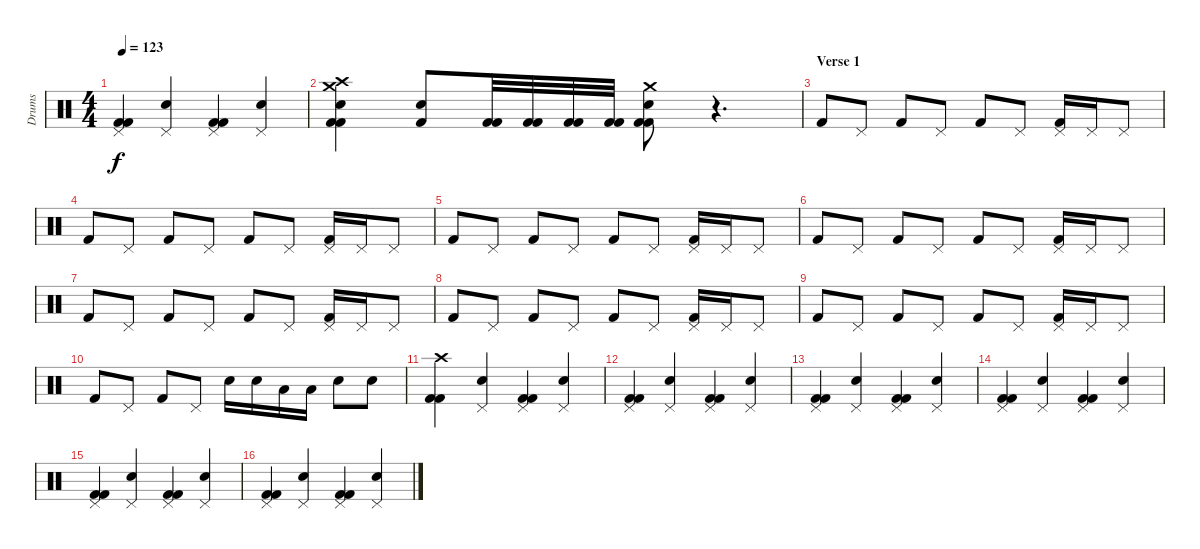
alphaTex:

\track ("Drums" "Drums") {instrument percussion}
\staff {score}
\articulation defaults
\ts (4 4)
\tempo 123
\clef neutral
\ks c
("Pedal Hi-Hat (hit)" "Kick (hit) 2" "Kick (hit) 2").4{dy f} ("Pedal Hi-Hat (hit)" "Snare (hit) 2").4 ("Pedal Hi-Hat (hit)" "Kick (hit) 2" "Kick (hit) 2").4 ("Pedal Hi-Hat (hit)" "Snare (hit) 2").4 |
("Crash medium (hit)" "Crash high (hit)" "Snare (hit) 2" "Kick (hit) 2" "Kick (hit) 2").4 ("Snare (hit) 2" "Kick (hit) 2").8 ("Kick (hit) 2" "Kick (hit) 2").32 ("Kick (hit) 2" "Kick (hit) 2").32 ("Kick (hit) 2" "Kick (hit) 2").32 ("Kick (hit) 2" "Kick (hit) 2").32 ("Crash medium (hit)" "Snare (hit) 2" "Kick (hit) 2" "Kick (hit) 2").8 r.4{d} |
\section ("" "Verse 1")
"Kick (hit) 2".8 "Pedal Hi-Hat (hit)".8 "Kick (hit) 2".8 "Pedal Hi-Hat (hit)".8 "Kick (hit) 2".8 "Pedal Hi-Hat (hit)".8 ("Pedal Hi-Hat (hit)" "Kick (hit) 2").16 "Pedal Hi-Hat (hit)".16 "Pedal Hi-Hat (hit)".8 |
"Kick (hit) 2".8 "Pedal Hi-Hat (hit)".8 "Kick (hit) 2".8 "Pedal Hi-Hat (hit)".8 "Kick (hit) 2".8 "Pedal Hi-Hat (hit)".8 ("Pedal Hi-Hat (hit)" "Kick (hit) 2").16 "Pedal Hi-Hat (hit)".16 "Pedal Hi-Hat (hit)".8 |
"Kick (hit) 2".8 "Pedal Hi-Hat (hit)".8 "Kick (hit) 2".8 "Pedal Hi-Hat (hit)".8 "Kick (hit) 2".8 "Pedal Hi-Hat (hit)".8 ("Pedal Hi-Hat (hit)" "Kick (hit) 2").16 "Pedal Hi-Hat (hit)".16 "Pedal Hi-Hat (hit)".8 |
"Kick (hit) 2".8 "Pedal Hi-Hat (hit)".8 "Kick (hit) 2".8 "Pedal Hi-Hat (hit)".8 "Kick (hit) 2".8 "Pedal Hi-Hat (hit)".8 ("Pedal Hi-Hat (hit)" "Kick (hit) 2").16 "Pedal Hi-Hat (hit)".16 "Pedal Hi-Hat (hit)".8 |
"Kick (hit) 2".8 "Pedal Hi-Hat (hit)".8 "Kick (hit) 2".8 "Pedal Hi-Hat (hit)".8 "Kick (hit) 2".8 "Pedal Hi-Hat (hit)".8 ("Pedal Hi-Hat (hit)" "Kick (hit) 2").16 "Pedal Hi-Hat (hit)".16 "Pedal Hi-Hat (hit)".8 |
"Kick (hit) 2".8 "Pedal Hi-Hat (hit)".8 "Kick (hit) 2".8 "Pedal Hi-Hat (hit)".8 "Kick (hit) 2".8 "Pedal Hi-Hat (hit)".8 ("Pedal Hi-Hat (hit)" "Kick (hit) 2").16 "Pedal Hi-Hat (hit)".16 "Pedal Hi-Hat (hit)".8 |
"Kick (hit) 2".8 "Pedal Hi-Hat (hit)".8 "Kick (hit) 2".8 "Pedal Hi-Hat (hit)".8 "Kick (hit) 2".8 "Pedal Hi-Hat (hit)".8 ("Pedal Hi-Hat (hit)" "Kick (hit) 2").16 "Pedal Hi-Hat (hit)".16 "Pedal Hi-Hat (hit)".8 |
"Kick (hit) 2".8 "Pedal Hi-Hat (hit)".8 "Kick (hit) 2".8 "Pedal Hi-Hat (hit)".8 "Snare (hit) 2".16 "Snare (hit) 2".16 "Low Tom (hit)".16 "Low Tom (hit)".16 "Snare (hit) 2".8 "Snare (hit) 2".8 |
("Crash high (hit)" "Kick (hit) 2" "Kick (hit) 2").4 ("Pedal Hi-Hat (hit)" "Snare (hit) 2").4 ("Pedal Hi-Hat (hit)" "Kick (hit) 2" "Kick (hit) 2").4 ("Pedal Hi-Hat (hit)" "Snare (hit) 2").4 |
("Pedal Hi-Hat (hit)" "Kick (hit) 2" "Kick (hit) 2").4 ("Pedal Hi-Hat (hit)" "Snare (hit) 2").4 ("Pedal Hi-Hat (hit)" "Kick (hit) 2" "Kick (hit) 2").4 ("Pedal Hi-Hat (hit)" "Snare (hit) 2").4 |
("Pedal Hi-Hat (hit)" "Kick (hit) 2" "Kick (hit) 2").4 ("Pedal Hi-Hat (hit)" "Snare (hit) 2").4 ("Pedal Hi-Hat (hit)" "Kick (hit) 2" "Kick (hit) 2").4 ("Pedal Hi-Hat (hit)" "Snare (hit) 2").4 |
("Pedal Hi-Hat (hit)" "Kick (hit) 2" "Kick (hit) 2").4 ("Pedal Hi-Hat (hit)" "Snare (hit) 2").4 ("Pedal Hi-Hat (hit)" "Kick (hit) 2" "Kick (hit) 2").4 ("Pedal Hi-Hat (hit)" "Snare (hit) 2").4 |
("Pedal Hi-Hat (hit)" "Kick (hit) 2" "Kick (hit) 2").4 ("Pedal Hi-Hat (hit)" "Snare (hit) 2").4 ("Pedal Hi-Hat (hit)" "Kick (hit) 2" "Kick (hit) 2").4 ("Pedal Hi-Hat (hit)" "Snare (hit) 2").4 |
("Pedal Hi-Hat (hit)" "Kick (hit) 2" "Kick (hit) 2").4 ("Pedal Hi-Hat (hit)" "Snare (hit) 2").4 ("Pedal Hi-Hat (hit)" "Kick (hit) 2" "Kick (hit) 2").4 ("Pedal Hi-Hat (hit)" "Snare (hit) 2").4
